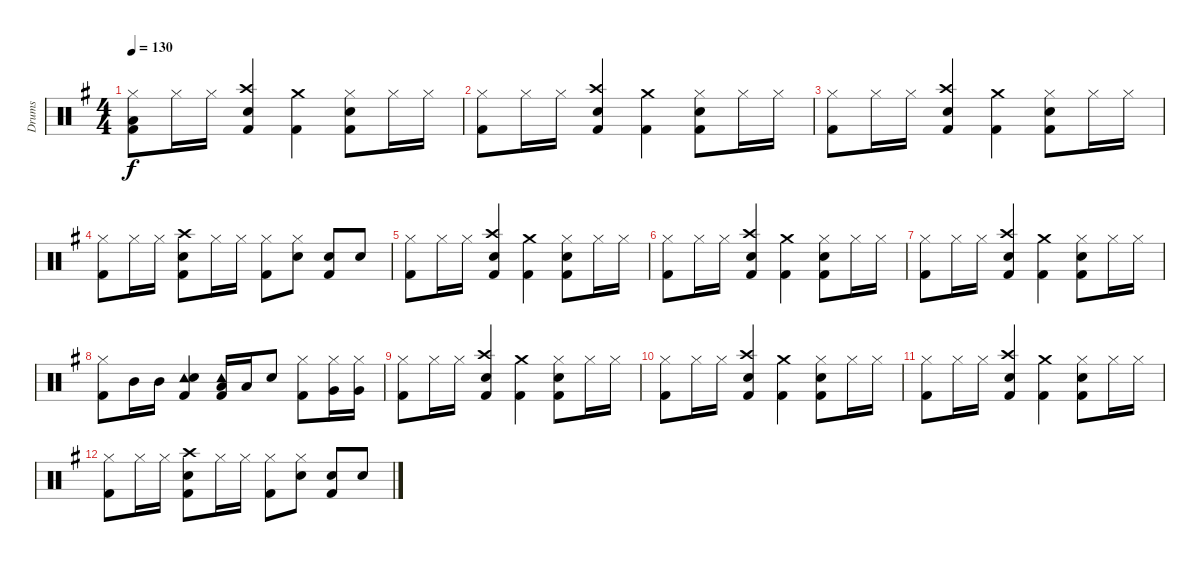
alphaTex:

\track ("Drums" "Drums") {instrument percussion}
\staff {score}
\articulation defaults
\ts (4 4)
\tempo 130
\clef neutral
\ks g
("Hi-Hat (closed)" "Low Floor Tom (hit)" "Kick (hit) 2").8{dy f} "Hi-Hat (closed)".16 "Hi-Hat (closed)".16 ("Crash high (hit)" "Electric Snare (hit)" "Kick (hit) 2").4 ("Crash medium (hit)" "Kick (hit) 2").4 ("Hi-Hat (closed)" "Electric Snare (hit)" "Kick (hit) 2").8 "Hi-Hat (closed)".16 "Hi-Hat (closed)".16 |
("Hi-Hat (closed)" "Kick (hit) 2").8 "Hi-Hat (closed)".16 "Hi-Hat (closed)".16 ("Crash high (hit)" "Electric Snare (hit)" "Kick (hit) 2").4 ("Crash medium (hit)" "Kick (hit) 2").4 ("Hi-Hat (closed)" "Electric Snare (hit)" "Kick (hit) 2").8 "Hi-Hat (closed)".16 "Hi-Hat (closed)".16 |
("Hi-Hat (closed)" "Kick (hit) 2").8 "Hi-Hat (closed)".16 "Hi-Hat (closed)".16 ("Crash high (hit)" "Electric Snare (hit)" "Kick (hit) 2").4 ("Crash medium (hit)" "Kick (hit) 2").4 ("Hi-Hat (closed)" "Electric Snare (hit)" "Kick (hit) 2").8 "Hi-Hat (closed)".16 "Hi-Hat (closed)".16 |
("Hi-Hat (closed)" "Kick (hit) 2").8 "Hi-Hat (closed)".16 "Hi-Hat (closed)".16 ("Crash high (hit)" "Electric Snare (hit)" "Kick (hit) 2").8 "Hi-Hat (closed)".16 "Hi-Hat (closed)".16 ("Hi-Hat (closed)" "Kick (hit) 2").8 ("Hi-Hat (closed)" "Electric Snare (hit)").8 ("Electric Snare (hit)" "Kick (hit) 2").8 "Electric Snare (hit)".8 |
("Hi-Hat (closed)" "Kick (hit) 2").8 "Hi-Hat (closed)".16 "Hi-Hat (closed)".16 ("Crash high (hit)" "Electric Snare (hit)" "Kick (hit) 2").4 ("Crash medium (hit)" "Kick (hit) 2").4 ("Hi-Hat (closed)" "Electric Snare (hit)" "Kick (hit) 2").8 "Hi-Hat (closed)".16 "Hi-Hat (closed)".16 |
("Hi-Hat (closed)" "Kick (hit) 2").8 "Hi-Hat (closed)".16 "Hi-Hat (closed)".16 ("Crash high (hit)" "Electric Snare (hit)" "Kick (hit) 2").4 ("Crash medium (hit)" "Kick (hit) 2").4 ("Hi-Hat (closed)" "Electric Snare (hit)" "Kick (hit) 2").8 "Hi-Hat (closed)".16 "Hi-Hat (closed)".16 |
("Hi-Hat (closed)" "Kick (hit) 2").8 "Hi-Hat (closed)".16 "Hi-Hat (closed)".16 ("Crash high (hit)" "Electric Snare (hit)" "Kick (hit) 2").4 ("Crash medium (hit)" "Kick (hit) 2").4 ("Hi-Hat (closed)" "Electric Snare (hit)" "Kick (hit) 2").8 "Hi-Hat (closed)".16 "Hi-Hat (closed)".16 |
("Hi-Hat (closed)" "Kick (hit) 2").8 "Mid Tom (hit)".16 "Mid Tom (hit)".16 ("Tambourine (hit)" "Electric Snare (hit)" "Kick (hit) 2").4 ("Tambourine (hit)" "Low Tom (hit)" "Kick (hit) 2").16 "Low Tom (hit)".16 "Electric Snare (hit)".8 ("Hi-Hat (closed)" "Kick (hit) 2").8 ("Hi-Hat (closed)" "Very Low Tom (hit)").16 ("Hi-Hat (closed)" "Very Low Tom (hit)").16 |
("Hi-Hat (closed)" "Kick (hit) 2").8 "Hi-Hat (closed)".16 "Hi-Hat (closed)".16 ("Crash high (hit)" "Electric Snare (hit)" "Kick (hit) 2").4 ("Crash medium (hit)" "Kick (hit) 2").4 ("Hi-Hat (closed)" "Electric Snare (hit)" "Kick (hit) 2").8 "Hi-Hat (closed)".16 "Hi-Hat (closed)".16 |
("Hi-Hat (closed)" "Kick (hit) 2").8 "Hi-Hat (closed)".16 "Hi-Hat (closed)".16 ("Crash high (hit)" "Electric Snare (hit)" "Kick (hit) 2").4 ("Crash medium (hit)" "Kick (hit) 2").4 ("Hi-Hat (closed)" "Electric Snare (hit)" "Kick (hit) 2").8 "Hi-Hat (closed)".16 "Hi-Hat (closed)".16 |
("Hi-Hat (closed)" "Kick (hit) 2").8 "Hi-Hat (closed)".16 "Hi-Hat (closed)".16 ("Crash high (hit)" "Electric Snare (hit)" "Kick (hit) 2").4 ("Crash medium (hit)" "Kick (hit) 2").4 ("Hi-Hat (closed)" "Electric Snare (hit)" "Kick (hit) 2").8 "Hi-Hat (closed)".16 "Hi-Hat (closed)".16 |
("Hi-Hat (closed)" "Kick (hit) 2").8 "Hi-Hat (closed)".16 "Hi-Hat (closed)".16 ("Crash high (hit)" "Electric Snare (hit)" "Kick (hit) 2").8 "Hi-Hat (closed)".16 "Hi-Hat (closed)".16 ("Hi-Hat (closed)" "Kick (hit) 2").8 ("Hi-Hat (closed)" "Electric Snare (hit)").8 ("Electric Snare (hit)" "Kick (hit) 2").8 "Electric Snare (hit)".8
